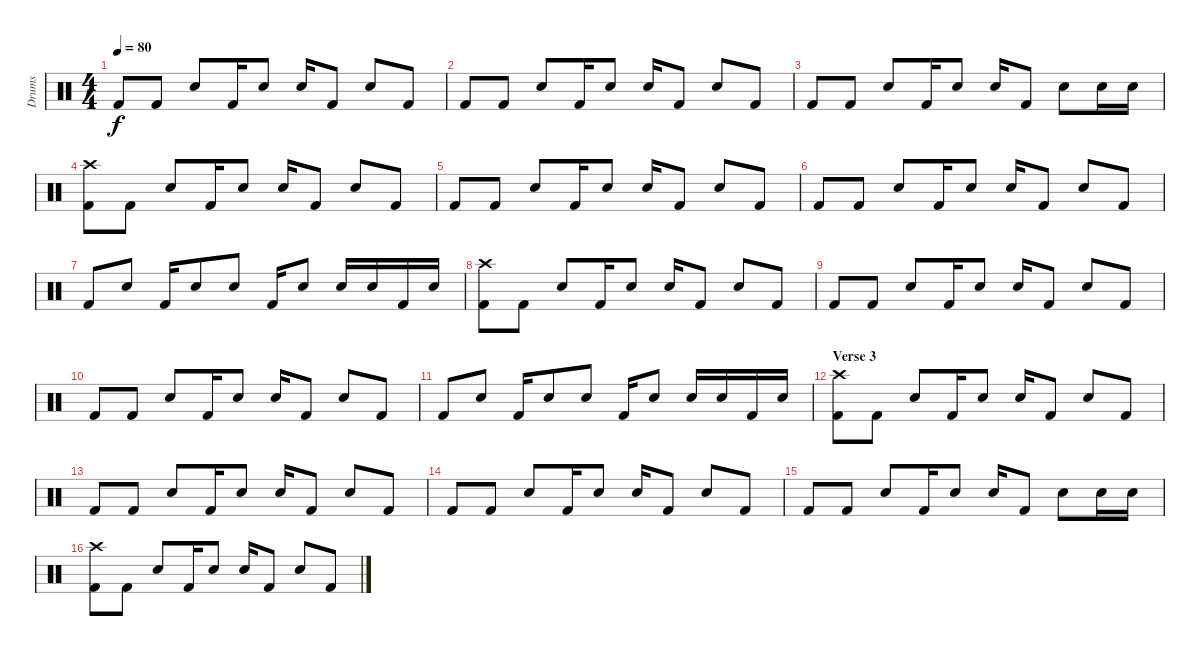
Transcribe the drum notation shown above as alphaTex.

\track ("Drums" "Drums") {instrument percussion}
\staff {score}
\articulation defaults
\ts (4 4)
\tempo 80
\clef neutral
\ks c "Kick (hit) 2".8{dy f} "Kick (hit) 2".8 "Electric Snare (hit)".8 "Kick (hit) 2".16 "Electric Snare (hit)".8 "Electric Snare (hit)".16 "Kick (hit) 2".8 "Electric Snare (hit)".8 "Kick (hit) 2".8
|
"Kick (hit) 2".8 "Kick (hit) 2".8 "Electric Snare (hit)".8 "Kick (hit) 2".16 "Electric Snare (hit)".8 "Electric Snare (hit)".16 "Kick (hit) 2".8 "Electric Snare (hit)".8 "Kick (hit) 2".8 |
"Kick (hit) 2".8 "Kick (hit) 2".8 "Electric Snare (hit)".8 "Kick (hit) 2".16 "Electric Snare (hit)".8 "Electric Snare (hit)".16 "Kick (hit) 2".8 "Electric Snare (hit)".8 "Electric Snare (hit)".16 "Electric Snare (hit)".16 |
("Crash high (hit)" "Kick (hit) 2").8 "Kick (hit) 2".8 "Electric Snare (hit)".8 "Kick (hit) 2".16 "Electric Snare (hit)".8 "Electric Snare (hit)".16 "Kick (hit) 2".8 "Electric Snare (hit)".8 "Kick (hit) 2".8 |
"Kick (hit) 2".8 "Kick (hit) 2".8 "Electric Snare (hit)".8 "Kick (hit) 2".16 "Electric Snare (hit)".8 "Electric Snare (hit)".16 "Kick (hit) 2".8 "Electric Snare (hit)".8 "Kick (hit) 2".8 |
"Kick (hit) 2".8 "Kick (hit) 2".8 "Electric Snare (hit)".8 "Kick (hit) 2".16 "Electric Snare (hit)".8 "Electric Snare (hit)".16 "Kick (hit) 2".8 "Electric Snare (hit)".8 "Kick (hit) 2".8 |
"Kick (hit) 2".8 "Electric Snare (hit)".8 "Kick (hit) 2".16 "Electric Snare (hit)".8 "Electric Snare (hit)".8 "Kick (hit) 2".16 "Electric Snare (hit)".8 "Electric Snare (hit)".16 "Electric Snare (hit)".16 "Kick (hit) 2".16 "Electric Snare (hit)".16 |
("Crash high (hit)" "Kick (hit) 2").8 "Kick (hit) 2".8 "Electric Snare (hit)".8 "Kick (hit) 2".16 "Electric Snare (hit)".8 "Electric Snare (hit)".16 "Kick (hit) 2".8 "Electric Snare (hit)".8 "Kick (hit) 2".8 |
"Kick (hit) 2".8 "Kick (hit) 2".8 "Electric Snare (hit)".8 "Kick (hit) 2".16 "Electric Snare (hit)".8 "Electric Snare (hit)".16 "Kick (hit) 2".8 "Electric Snare (hit)".8 "Kick (hit) 2".8 |
"Kick (hit) 2".8 "Kick (hit) 2".8 "Electric Snare (hit)".8 "Kick (hit) 2".16 "Electric Snare (hit)".8 "Electric Snare (hit)".16 "Kick (hit) 2".8 "Electric Snare (hit)".8 "Kick (hit) 2".8 |
"Kick (hit) 2".8 "Electric Snare (hit)".8 "Kick (hit) 2".16 "Electric Snare (hit)".8 "Electric Snare (hit)".8 "Kick (hit) 2".16 "Electric Snare (hit)".8 "Electric Snare (hit)".16 "Electric Snare (hit)".16 "Kick (hit) 2".16 "Electric Snare (hit)".16 |
\section ("" "Verse 3")
("Crash high (hit)" "Kick (hit) 2").8 "Kick (hit) 2".8 "Electric Snare (hit)".8 "Kick (hit) 2".16 "Electric Snare (hit)".8 "Electric Snare (hit)".16 "Kick (hit) 2".8 "Electric Snare (hit)".8 "Kick (hit) 2".8 |
"Kick (hit) 2".8 "Kick (hit) 2".8 "Electric Snare (hit)".8 "Kick (hit) 2".16 "Electric Snare (hit)".8 "Electric Snare (hit)".16 "Kick (hit) 2".8 "Electric Snare (hit)".8 "Kick (hit) 2".8 |
"Kick (hit) 2".8 "Kick (hit) 2".8 "Electric Snare (hit)".8 "Kick (hit) 2".16 "Electric Snare (hit)".8 "Electric Snare (hit)".16 "Kick (hit) 2".8 "Electric Snare (hit)".8 "Kick (hit) 2".8 |
"Kick (hit) 2".8 "Kick (hit) 2".8 "Electric Snare (hit)".8 "Kick (hit) 2".16 "Electric Snare (hit)".8 "Electric Snare (hit)".16 "Kick (hit) 2".8 "Electric Snare (hit)".8 "Electric Snare (hit)".16 "Electric Snare (hit)".16 |
("Crash high (hit)" "Kick (hit) 2").8 "Kick (hit) 2".8 "Electric Snare (hit)".8 "Kick (hit) 2".16 "Electric Snare (hit)".8 "Electric Snare (hit)".16 "Kick (hit) 2".8 "Electric Snare (hit)".8 "Kick (hit) 2".8
